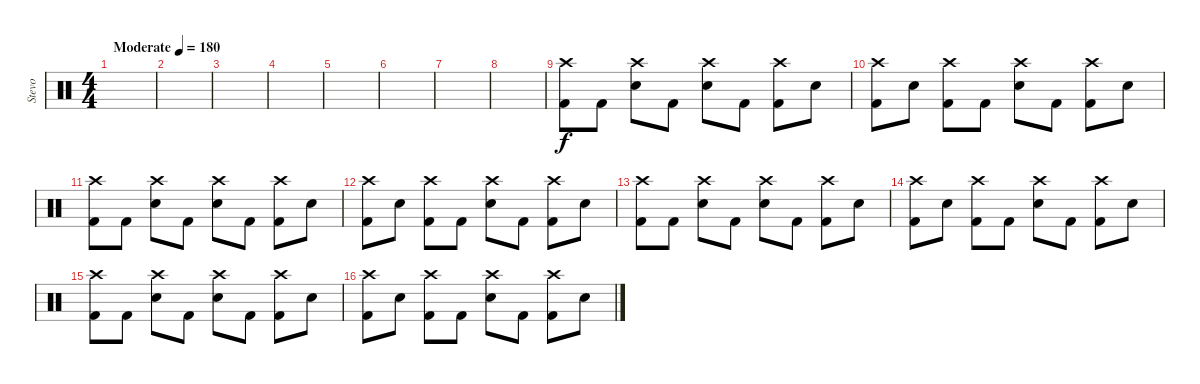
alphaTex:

\track ("Stevo" "Stevo") {instrument percussion}
\staff {score}
\articulation defaults
\ts (4 4)
\tempo (180 "Moderate")
\clef neutral
\ks c
|
|
|
|
|
|
|
|
("Crash high (hit)" "Kick (hit) 2").8 "Kick (hit) 2".8 ("Crash high (hit)" "Snare (hit) 2").8 "Kick (hit) 2".8 ("Crash high (hit)" "Snare (hit) 2").8 "Kick (hit) 2".8 ("Crash high (hit)" "Kick (hit) 2").8 "Snare (hit) 2".8 |
("Crash high (hit)" "Kick (hit) 2").8 "Snare (hit) 2".8 ("Crash high (hit)" "Kick (hit) 2").8 "Kick (hit) 2".8 ("Crash high (hit)" "Snare (hit) 2").8 "Kick (hit) 2".8 ("Crash high (hit)" "Kick (hit) 2").8 "Snare (hit) 2".8 |
("Crash high (hit)" "Kick (hit) 2").8 "Kick (hit) 2".8 ("Crash high (hit)" "Snare (hit) 2").8 "Kick (hit) 2".8 ("Crash high (hit)" "Snare (hit) 2").8 "Kick (hit) 2".8 ("Crash high (hit)" "Kick (hit) 2").8 "Snare (hit) 2".8 |
("Crash high (hit)" "Kick (hit) 2").8 "Snare (hit) 2".8 ("Crash high (hit)" "Kick (hit) 2").8 "Kick (hit) 2".8 ("Crash high (hit)" "Snare (hit) 2").8 "Kick (hit) 2".8 ("Crash high (hit)" "Kick (hit) 2").8 "Snare (hit) 2".8 |
("Crash high (hit)" "Kick (hit) 2").8 "Kick (hit) 2".8 ("Crash high (hit)" "Snare (hit) 2").8 "Kick (hit) 2".8 ("Crash high (hit)" "Snare (hit) 2").8 "Kick (hit) 2".8 ("Crash high (hit)" "Kick (hit) 2").8 "Snare (hit) 2".8 |
("Crash high (hit)" "Kick (hit) 2").8 "Snare (hit) 2".8 ("Crash high (hit)" "Kick (hit) 2").8 "Kick (hit) 2".8 ("Crash high (hit)" "Snare (hit) 2").8 "Kick (hit) 2".8 ("Crash high (hit)" "Kick (hit) 2").8 "Snare (hit) 2".8 |
("Crash high (hit)" "Kick (hit) 2").8 "Kick (hit) 2".8 ("Crash high (hit)" "Snare (hit) 2").8 "Kick (hit) 2".8 ("Crash high (hit)" "Snare (hit) 2").8 "Kick (hit) 2".8 ("Crash high (hit)" "Kick (hit) 2").8 "Snare (hit) 2".8 |
("Crash high (hit)" "Kick (hit) 2").8 "Snare (hit) 2".8 ("Crash high (hit)" "Kick (hit) 2").8 "Kick (hit) 2".8 ("Crash high (hit)" "Snare (hit) 2").8 "Kick (hit) 2".8 ("Crash high (hit)" "Kick (hit) 2").8 "Snare (hit) 2".8
